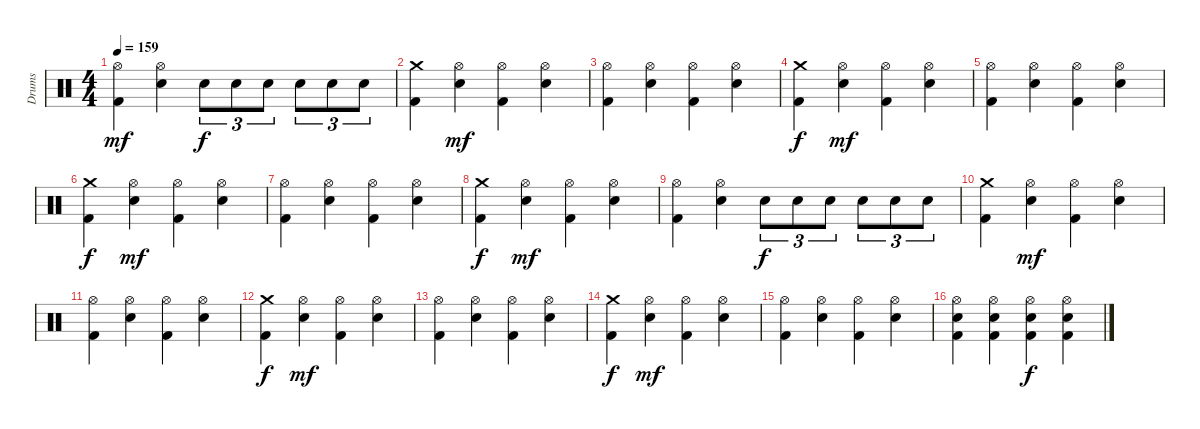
\track ("Drums" "Drums") {instrument percussion}
\staff {score}
\articulation defaults
\ts (4 4)
\tempo 159
\clef neutral
\ks c
("Hi-Hat (open)" "Kick (hit) 2").4{dy mf} ("Hi-Hat (open)" "Snare (hit) 2").4 "Snare (hit) 2".8{tu (3 2) dy f} "Snare (hit) 2".8{tu (3 2)} "Snare (hit) 2".8{tu (3 2)} "Snare (hit) 2".8{tu (3 2)} "Snare (hit) 2".8{tu (3 2)} "Snare (hit) 2".8{tu (3 2)} |
("Crash medium (hit)" "Kick (hit) 2").4 ("Hi-Hat (open)" "Snare (hit) 2").4{dy mf} ("Hi-Hat (open)" "Kick (hit) 2").4 ("Hi-Hat (open)" "Snare (hit) 2").4 |
("Hi-Hat (open)" "Kick (hit) 2").4 ("Hi-Hat (open)" "Snare (hit) 2").4 ("Hi-Hat (open)" "Kick (hit) 2").4 ("Hi-Hat (open)" "Snare (hit) 2").4 |
("Crash medium (hit)" "Kick (hit) 2").4{dy f} ("Hi-Hat (open)" "Snare (hit) 2").4{dy mf} ("Hi-Hat (open)" "Kick (hit) 2").4 ("Hi-Hat (open)" "Snare (hit) 2").4 |
("Hi-Hat (open)" "Kick (hit) 2").4 ("Hi-Hat (open)" "Snare (hit) 2").4 ("Hi-Hat (open)" "Kick (hit) 2").4 ("Hi-Hat (open)" "Snare (hit) 2").4 |
("Crash medium (hit)" "Kick (hit) 2").4{dy f} ("Hi-Hat (open)" "Snare (hit) 2").4{dy mf} ("Hi-Hat (open)" "Kick (hit) 2").4 ("Hi-Hat (open)" "Snare (hit) 2").4 |
("Hi-Hat (open)" "Kick (hit) 2").4 ("Hi-Hat (open)" "Snare (hit) 2").4 ("Hi-Hat (open)" "Kick (hit) 2").4 ("Hi-Hat (open)" "Snare (hit) 2").4 |
("Crash medium (hit)" "Kick (hit) 2").4{dy f} ("Hi-Hat (open)" "Snare (hit) 2").4{dy mf} ("Hi-Hat (open)" "Kick (hit) 2").4 ("Hi-Hat (open)" "Snare (hit) 2").4 |
("Hi-Hat (open)" "Kick (hit) 2").4 ("Hi-Hat (open)" "Snare (hit) 2").4 "Snare (hit) 2".8{tu (3 2) dy f} "Snare (hit) 2".8{tu (3 2)} "Snare (hit) 2".8{tu (3 2)} "Snare (hit) 2".8{tu (3 2)} "Snare (hit) 2".8{tu (3 2)} "Snare (hit) 2".8{tu (3 2)} |
("Crash medium (hit)" "Kick (hit) 2").4 ("Hi-Hat (open)" "Snare (hit) 2").4{dy mf} ("Hi-Hat (open)" "Kick (hit) 2").4 ("Hi-Hat (open)" "Snare (hit) 2").4 |
("Hi-Hat (open)" "Kick (hit) 2").4 ("Hi-Hat (open)" "Snare (hit) 2").4 ("Hi-Hat (open)" "Kick (hit) 2").4 ("Hi-Hat (open)" "Snare (hit) 2").4 |
("Crash medium (hit)" "Kick (hit) 2").4{dy f} ("Hi-Hat (open)" "Snare (hit) 2").4{dy mf} ("Hi-Hat (open)" "Kick (hit) 2").4 ("Hi-Hat (open)" "Snare (hit) 2").4 |
("Hi-Hat (open)" "Kick (hit) 2").4 ("Hi-Hat (open)" "Snare (hit) 2").4 ("Hi-Hat (open)" "Kick (hit) 2").4 ("Hi-Hat (open)" "Snare (hit) 2").4 |
("Crash medium (hit)" "Kick (hit) 2").4{dy f} ("Hi-Hat (open)" "Snare (hit) 2").4{dy mf} ("Hi-Hat (open)" "Kick (hit) 2").4 ("Hi-Hat (open)" "Snare (hit) 2").4 |
("Hi-Hat (open)" "Kick (hit) 2").4 ("Hi-Hat (open)" "Snare (hit) 2").4 ("Hi-Hat (open)" "Kick (hit) 2").4 ("Hi-Hat (open)" "Snare (hit) 2").4 |
("Hi-Hat (open)" "Snare (hit) 2" "Kick (hit) 2").4 ("Hi-Hat (open)" "Snare (hit) 2" "Kick (hit) 2").4 ("Hi-Hat (open)" "Snare (hit) 2" "Kick (hit) 2").4{dy f} ("Hi-Hat (open)" "Snare (hit) 2" "Kick (hit) 2").4
